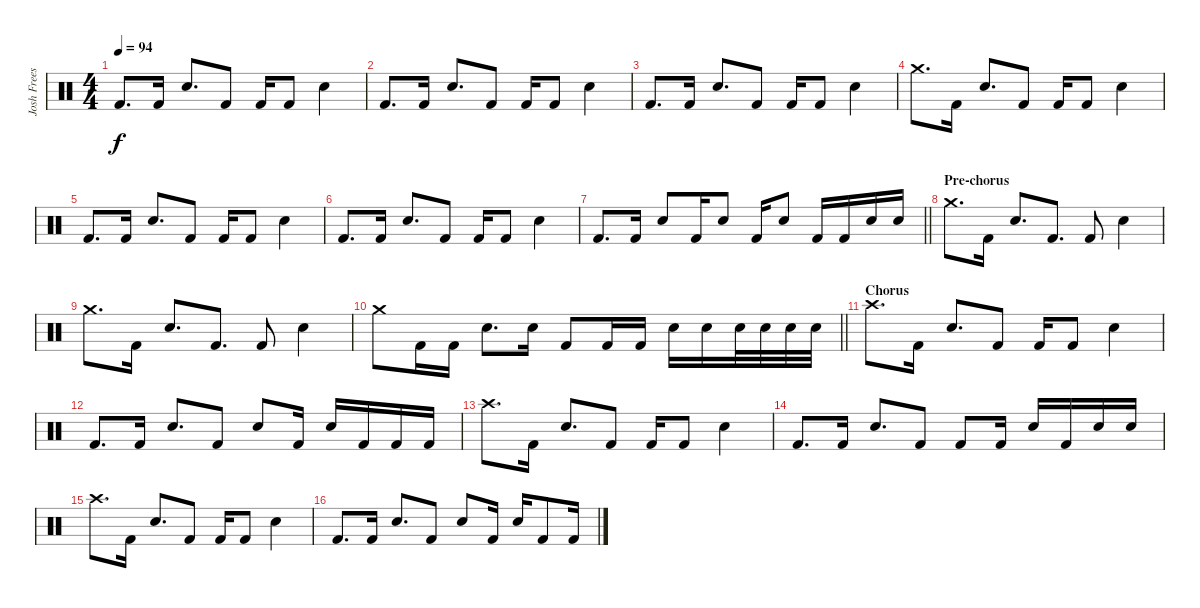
\track ("Josh Freese (Studio Drummer)" "Josh Frees") {instrument percussion}
\staff {score}
\articulation defaults
\ts (4 4)
\tempo 94
\clef neutral
\ks c "Kick (hit) 2".8{d dy f} "Kick (hit) 2".16 "Electric Snare (hit)".8{d} "Kick (hit) 2".8 "Kick (hit) 2".16 "Kick (hit) 2".8 "Electric Snare (hit)".4
|
"Kick (hit) 2".8{d} "Kick (hit) 2".16 "Electric Snare (hit)".8{d} "Kick (hit) 2".8 "Kick (hit) 2".16 "Kick (hit) 2".8 "Electric Snare (hit)".4 |
"Kick (hit) 2".8{d} "Kick (hit) 2".16 "Electric Snare (hit)".8{d} "Kick (hit) 2".8 "Kick (hit) 2".16 "Kick (hit) 2".8 "Electric Snare (hit)".4 |
"Crash medium (hit)".8{d} "Kick (hit) 2".16 "Electric Snare (hit)".8{d} "Kick (hit) 2".8 "Kick (hit) 2".16 "Kick (hit) 2".8 "Electric Snare (hit)".4 |
"Kick (hit) 2".8{d} "Kick (hit) 2".16 "Electric Snare (hit)".8{d} "Kick (hit) 2".8 "Kick (hit) 2".16 "Kick (hit) 2".8 "Electric Snare (hit)".4 |
"Kick (hit) 2".8{d} "Kick (hit) 2".16 "Electric Snare (hit)".8{d} "Kick (hit) 2".8 "Kick (hit) 2".16 "Kick (hit) 2".8 "Electric Snare (hit)".4 |
\barLineRight lightlight "Kick (hit) 2".8{d} "Kick (hit) 2".16 "Electric Snare (hit)".8 "Kick (hit) 2".16 "Electric Snare (hit)".8 "Kick (hit) 2".16 "Electric Snare (hit)".8 "Kick (hit) 2".16 "Kick (hit) 2".16 "Electric Snare (hit)".16 "Electric Snare (hit)".16
|
\section ("" "Pre-chorus")
"Crash medium (hit)".8{d} "Kick (hit) 2".16 "Electric Snare (hit)".8{d} "Kick (hit) 2".8{d} "Kick (hit) 2".8 "Electric Snare (hit)".4 |
"Crash medium (hit)".8{d} "Kick (hit) 2".16 "Electric Snare (hit)".8{d} "Kick (hit) 2".8{d} "Kick (hit) 2".8 "Electric Snare (hit)".4 |
\barLineRight lightlight "Crash medium (hit)".8 "Kick (hit) 2".16 "Kick (hit) 2".16 "Electric Snare (hit)".8{d} "Electric Snare (hit)".16 "Kick (hit) 2".8 "Kick (hit) 2".16 "Kick (hit) 2".16 "Electric Snare (hit)".16 "Electric Snare (hit)".16 "Electric Snare (hit)".32 "Electric Snare (hit)".32 "Electric Snare (hit)".32 "Electric Snare (hit)".32
|
\section ("" "Chorus")
"Crash high (hit)".8{d} "Kick (hit) 2".16 "Electric Snare (hit)".8{d} "Kick (hit) 2".8 "Kick (hit) 2".16 "Kick (hit) 2".8 "Electric Snare (hit)".4 |
"Kick (hit) 2".8{d} "Kick (hit) 2".16 "Electric Snare (hit)".8{d} "Kick (hit) 2".8 "Electric Snare (hit)".8 "Kick (hit) 2".16 "Electric Snare (hit)".16 "Kick (hit) 2".16 "Kick (hit) 2".16 "Kick (hit) 2".16 |
"Crash high (hit)".8{d} "Kick (hit) 2".16 "Electric Snare (hit)".8{d} "Kick (hit) 2".8 "Kick (hit) 2".16 "Kick (hit) 2".8 "Electric Snare (hit)".4 |
"Kick (hit) 2".8{d} "Kick (hit) 2".16 "Electric Snare (hit)".8{d} "Kick (hit) 2".8 "Kick (hit) 2".8 "Kick (hit) 2".16 "Electric Snare (hit)".16 "Kick (hit) 2".16 "Electric Snare (hit)".16 "Electric Snare (hit)".16 |
"Crash high (hit)".8{d} "Kick (hit) 2".16 "Electric Snare (hit)".8{d} "Kick (hit) 2".8 "Kick (hit) 2".16 "Kick (hit) 2".8 "Electric Snare (hit)".4 |
"Kick (hit) 2".8{d} "Kick (hit) 2".16 "Electric Snare (hit)".8{d} "Kick (hit) 2".8 "Electric Snare (hit)".8 "Kick (hit) 2".16 "Electric Snare (hit)".16 "Kick (hit) 2".8 "Kick (hit) 2".16
